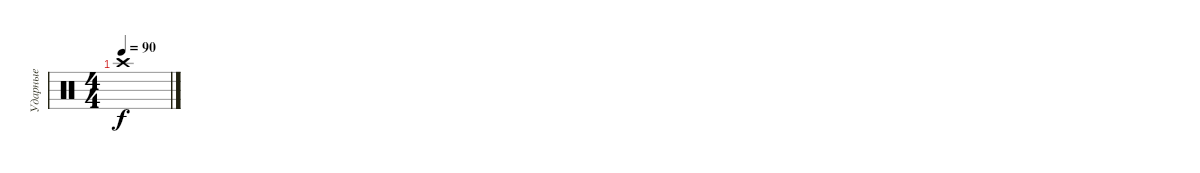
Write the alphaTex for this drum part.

\track ("Ударные" "Ударные") {instrument percussion}
\staff {score}
\articulation defaults
\ts (4 4)
\tempo 90
\clef neutral
\ks c "Crash high (hit)".1{dy f}
